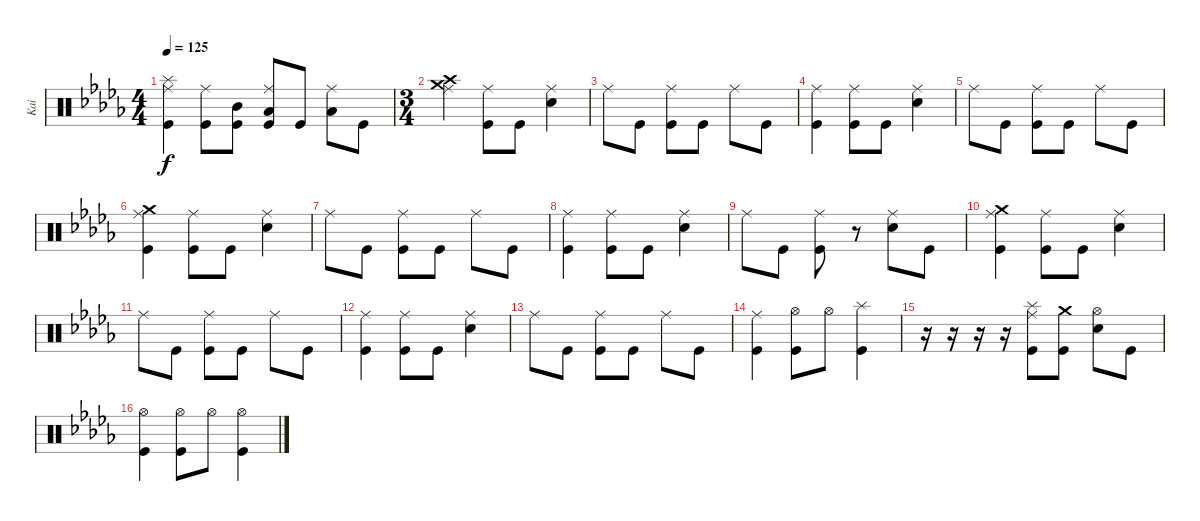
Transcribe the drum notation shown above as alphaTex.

\track ("Kai" "Kai") {instrument percussion}
\staff {score}
\articulation defaults
\ts (4 4)
\tempo 125
\clef neutral
\ks bbminor
("Kick (hit)" "Ride (middle)" "Splash (hit)").4{dy f} ("Kick (hit)" "Ride (middle)").8 ("Mid Tom (hit)" "Kick (hit)").8 ("Low Tom (hit)" "Kick (hit)" "Ride (middle)").8 "Kick (hit)".8 ("Low Tom (hit)" "Ride (middle)").8 "Kick (hit)".8 |
\ts (3 4)
("Crash high (hit)" "Ride (middle)" "Crash medium (hit)").4 ("Kick (hit)" "Ride (middle)").8 "Kick (hit)".8 ("Snare (hit) 2" "Ride (middle)").4 |
"Ride (middle)".8 "Kick (hit)".8 ("Kick (hit)" "Ride (middle)").8 "Kick (hit)".8 "Ride (middle)".8 "Kick (hit)".8 |
("Kick (hit)" "Ride (middle)").4 ("Kick (hit)" "Ride (middle)").8 "Kick (hit)".8 ("Snare (hit) 2" "Ride (middle)").4 |
"Ride (middle)".8 "Kick (hit)".8 ("Kick (hit)" "Ride (middle)").8 "Kick (hit)".8 "Ride (middle)".8 "Kick (hit)".8 |
("Crash medium (hit)" "Kick (hit)" "Ride (middle)").4 ("Kick (hit)" "Ride (middle)").8 "Kick (hit)".8 ("Snare (hit) 2" "Ride (middle)").4 |
"Ride (middle)".8 "Kick (hit)".8 ("Kick (hit)" "Ride (middle)").8 "Kick (hit)".8 "Ride (middle)".8 "Kick (hit)".8 |
("Kick (hit)" "Ride (middle)").4 ("Kick (hit)" "Ride (middle)").8 "Kick (hit)".8 ("Snare (hit) 2" "Ride (middle)").4 |
"Ride (middle)".8 "Kick (hit)".8 ("Kick (hit)" "Ride (middle)").8 r.8 ("Snare (hit) 2" "Ride (middle)").8 "Kick (hit)".8 |
("Crash medium (hit)" "Kick (hit)" "Ride (middle)").4 ("Kick (hit)" "Ride (middle)").8 "Kick (hit)".8 ("Snare (hit) 2" "Ride (middle)").4 |
"Ride (middle)".8 "Kick (hit)".8 ("Kick (hit)" "Ride (middle)").8 "Kick (hit)".8 "Ride (middle)".8 "Kick (hit)".8 |
("Kick (hit)" "Ride (middle)").4 ("Kick (hit)" "Ride (middle)").8 "Kick (hit)".8 ("Snare (hit) 2" "Ride (middle)").4 |
"Ride (middle)".8 "Kick (hit)".8 ("Kick (hit)" "Ride (middle)").8 "Kick (hit)".8 "Ride (middle)".8 "Kick (hit)".8 |
("Kick (hit)" "Ride (middle)").4 ("Hi-Hat (open)" "Kick (hit)").8 "Hi-Hat (open)".8 ("Splash (hit)" "Kick (hit)").4 |
r.16 r.16 r.16 r.16 ("Splash (hit)" "Ride (middle)" "Kick (hit)").8 ("Crash medium (hit)" "Kick (hit)").8 ("Snare (hit) 2" "Hi-Hat (open)").8 "Kick (hit)".8 |
("Kick (hit)" "Hi-Hat (open)").4 ("Hi-Hat (open)" "Kick (hit)").8 "Hi-Hat (open)".8 ("Hi-Hat (open)" "Kick (hit)").4
